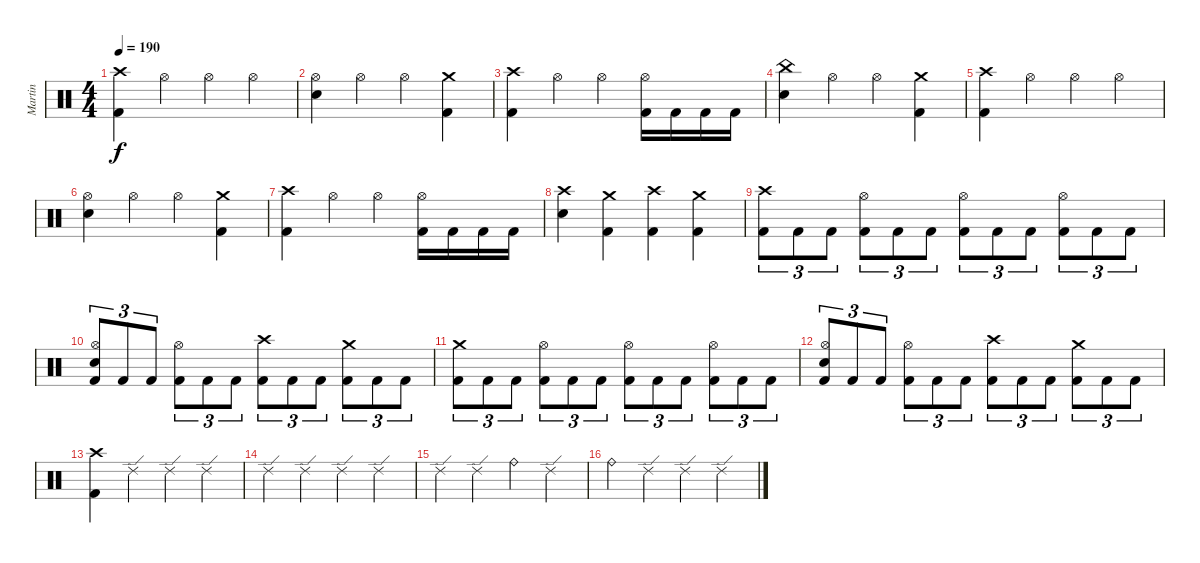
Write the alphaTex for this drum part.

\track ("Martin" "Martin") {instrument percussion}
\staff {score}
\articulation defaults
\ts (4 4)
\tempo 190
\clef neutral
\ks c
("Crash high (hit)" "Kick (hit) 2").4{dy f} "Hi-Hat (open)".4 "Hi-Hat (open)".4 "Hi-Hat (open)".4 |
("Hi-Hat (open)" "Snare (hit) 2").4 "Hi-Hat (open)".4 "Hi-Hat (open)".4 ("Crash medium (hit)" "Kick (hit) 2").4 |
("Crash high (hit)" "Kick (hit) 2").4 "Hi-Hat (open)".4 "Hi-Hat (open)".4 ("Hi-Hat (open)" "Kick (hit) 2").16 "Kick (hit) 2".16 "Kick (hit) 2".16 "Kick (hit) 2".16 |
("China (hit)" "Snare (hit) 2").4 "Hi-Hat (open)".4 "Hi-Hat (open)".4 ("Crash medium (hit)" "Kick (hit) 2").4 |
("Crash high (hit)" "Kick (hit) 2").4 "Hi-Hat (open)".4 "Hi-Hat (open)".4 "Hi-Hat (open)".4 |
("Hi-Hat (open)" "Snare (hit) 2").4 "Hi-Hat (open)".4 "Hi-Hat (open)".4 ("Crash medium (hit)" "Kick (hit) 2").4 |
("Crash high (hit)" "Kick (hit) 2").4 "Hi-Hat (open)".4 "Hi-Hat (open)".4 ("Hi-Hat (open)" "Kick (hit) 2").16 "Kick (hit) 2".16 "Kick (hit) 2".16 "Kick (hit) 2".16 |
("Crash high (hit)" "Snare (hit) 2").4 ("Crash medium (hit)" "Kick (hit) 2").4 ("Crash high (hit)" "Kick (hit) 2").4 ("Crash medium (hit)" "Kick (hit) 2").4 |
("Crash high (hit)" "Kick (hit) 2").8{tu (3 2)} "Kick (hit) 2".8{tu (3 2)} "Kick (hit) 2".8{tu (3 2)} ("Hi-Hat (open)" "Kick (hit) 2").8{tu (3 2)} "Kick (hit) 2".8{tu (3 2)} "Kick (hit) 2".8{tu (3 2)} ("Hi-Hat (open)" "Kick (hit) 2").8{tu (3 2)} "Kick (hit) 2".8{tu (3 2)} "Kick (hit) 2".8{tu (3 2)} ("Hi-Hat (open)" "Kick (hit) 2").8{tu (3 2)} "Kick (hit) 2".8{tu (3 2)} "Kick (hit) 2".8{tu (3 2)} |
("Hi-Hat (open)" "Snare (hit) 2" "Kick (hit) 2").8{tu (3 2)} "Kick (hit) 2".8{tu (3 2)} "Kick (hit) 2".8{tu (3 2)} ("Hi-Hat (open)" "Kick (hit) 2").8{tu (3 2)} "Kick (hit) 2".8{tu (3 2)} "Kick (hit) 2".8{tu (3 2)} ("Crash high (hit)" "Kick (hit) 2").8{tu (3 2)} "Kick (hit) 2".8{tu (3 2)} "Kick (hit) 2".8{tu (3 2)} ("Crash medium (hit)" "Kick (hit) 2").8{tu (3 2)} "Kick (hit) 2".8{tu (3 2)} "Kick (hit) 2".8{tu (3 2)} |
("Crash medium (hit)" "Kick (hit) 2").8{tu (3 2)} "Kick (hit) 2".8{tu (3 2)} "Kick (hit) 2".8{tu (3 2)} ("Hi-Hat (open)" "Kick (hit) 2").8{tu (3 2)} "Kick (hit) 2".8{tu (3 2)} "Kick (hit) 2".8{tu (3 2)} ("Hi-Hat (open)" "Kick (hit) 2").8{tu (3 2)} "Kick (hit) 2".8{tu (3 2)} "Kick (hit) 2".8{tu (3 2)} ("Hi-Hat (open)" "Kick (hit) 2").8{tu (3 2)} "Kick (hit) 2".8{tu (3 2)} "Kick (hit) 2".8{tu (3 2)} |
("Hi-Hat (open)" "Snare (hit) 2" "Kick (hit) 2").8{tu (3 2)} "Kick (hit) 2".8{tu (3 2)} "Kick (hit) 2".8{tu (3 2)} ("Hi-Hat (open)" "Kick (hit) 2").8{tu (3 2)} "Kick (hit) 2".8{tu (3 2)} "Kick (hit) 2".8{tu (3 2)} ("Crash high (hit)" "Kick (hit) 2").8{tu (3 2)} "Kick (hit) 2".8{tu (3 2)} "Kick (hit) 2".8{tu (3 2)} ("Crash medium (hit)" "Kick (hit) 2").8{tu (3 2)} "Kick (hit) 2".8{tu (3 2)} "Kick (hit) 2".8{tu (3 2)} |
("Crash high (hit)" "Kick (hit) 2").4 "Ride (edge) 2".4 "Ride (edge) 2".4 "Ride (edge) 2".4 |
"Ride (edge) 2".4 "Ride (edge) 2".4 "Ride (edge) 2".4 "Ride (edge) 2".4 |
"Ride (edge) 2".4 "Ride (edge) 2".4 "Ride (bell)".4 "Ride (edge) 2".4 |
"Ride (bell)".4 "Ride (edge) 2".4 "Ride (edge) 2".4 "Ride (edge) 2".4
